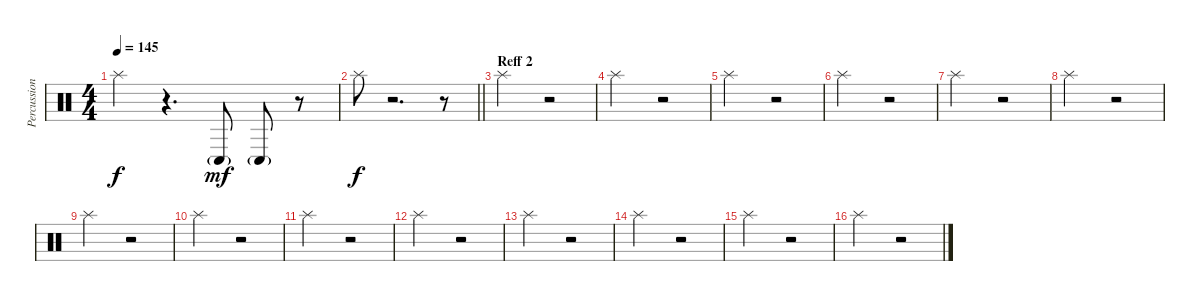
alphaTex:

\track ("Percussion 2" "Percussion") {instrument percussion}
\staff {score}
\articulation defaults
\ts (4 4)
\tempo 145
\clef neutral
\ks c "Splash (hit)".4{dy f}
r.4{d} "Conga low (hit)"{g}.8{dy mf} "Conga low (hit)"{g}.8 r.8 |
\barLineRight lightlight "Splash (hit)".8{dy f}
r.2{d} r.8 |
\section ("" "Reff 2")
"Splash (hit)".2 r.2 |
"Splash (hit)".2 r.2 |
"Splash (hit)".2 r.2 |
"Splash (hit)".2 r.2 |
"Splash (hit)".2 r.2 |
"Splash (hit)".2 r.2 |
"Splash (hit)".2 r.2 |
"Splash (hit)".2 r.2 |
"Splash (hit)".2 r.2 |
"Splash (hit)".2 r.2 |
"Splash (hit)".2 r.2 |
"Splash (hit)".2 r.2 |
"Splash (hit)".2 r.2 |
"Splash (hit)".2 r.2
